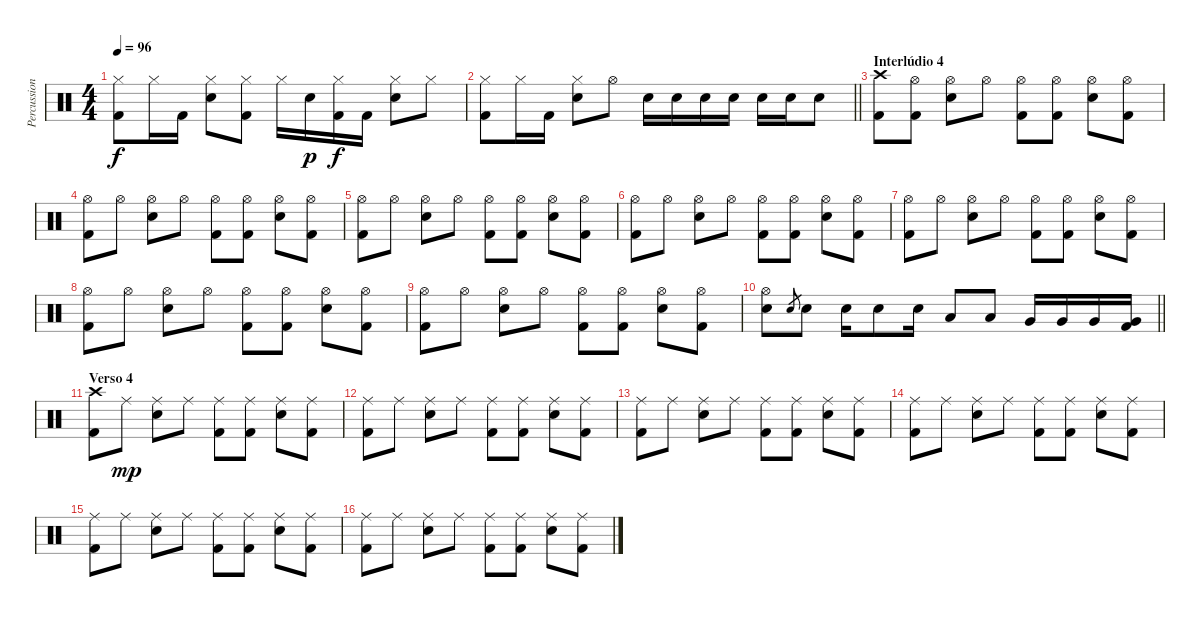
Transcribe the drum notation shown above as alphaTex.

\track ("Percussion" "Percussion") {instrument percussion}
\staff {score}
\articulation defaults
\ts (4 4)
\tempo 96
\clef neutral
\ks c
("Hi-Hat (closed)" "Kick (hit) 2").8{dy f} "Hi-Hat (closed)".16 "Kick (hit) 2".16 ("Hi-Hat (closed)" "Electric Snare (hit)").8 ("Hi-Hat (closed)" "Kick (hit) 2").8 "Hi-Hat (closed)".16 "Electric Snare (hit)".16{dy p} ("Hi-Hat (closed)" "Kick (hit) 2").16{dy f} "Kick (hit) 2".16 ("Hi-Hat (closed)" "Electric Snare (hit)").8 "Hi-Hat (closed)".8 |
\barLineRight lightlight
("Hi-Hat (closed)" "Kick (hit) 2").8 "Hi-Hat (closed)".16 "Kick (hit) 2".16 ("Hi-Hat (closed)" "Electric Snare (hit)").8 "Hi-Hat (open)".8 "Electric Snare (hit)".16 "Electric Snare (hit)".16 "Electric Snare (hit)".16 "Electric Snare (hit)".16 "Electric Snare (hit)".16 "Electric Snare (hit)".16 "Electric Snare (hit)".8 |
\section ("" "Interlúdio 4")
("Crash high (hit)" "Kick (hit) 2").8 ("Hi-Hat (open)" "Kick (hit) 2").8 ("Hi-Hat (open)" "Electric Snare (hit)").8 "Hi-Hat (open)".8 ("Hi-Hat (open)" "Kick (hit) 2").8 ("Hi-Hat (open)" "Kick (hit) 2").8 ("Hi-Hat (open)" "Electric Snare (hit)").8 ("Hi-Hat (open)" "Kick (hit) 2").8 |
("Hi-Hat (open)" "Kick (hit) 2").8 "Hi-Hat (open)".8 ("Hi-Hat (open)" "Electric Snare (hit)").8 "Hi-Hat (open)".8 ("Hi-Hat (open)" "Kick (hit) 2").8 ("Hi-Hat (open)" "Kick (hit) 2").8 ("Hi-Hat (open)" "Electric Snare (hit)").8 ("Hi-Hat (open)" "Kick (hit) 2").8 |
("Hi-Hat (open)" "Kick (hit) 2").8 "Hi-Hat (open)".8 ("Hi-Hat (open)" "Electric Snare (hit)").8 "Hi-Hat (open)".8 ("Hi-Hat (open)" "Kick (hit) 2").8 ("Hi-Hat (open)" "Kick (hit) 2").8 ("Hi-Hat (open)" "Electric Snare (hit)").8 ("Hi-Hat (open)" "Kick (hit) 2").8 |
("Hi-Hat (open)" "Kick (hit) 2").8 "Hi-Hat (open)".8 ("Hi-Hat (open)" "Electric Snare (hit)").8 "Hi-Hat (open)".8 ("Hi-Hat (open)" "Kick (hit) 2").8 ("Hi-Hat (open)" "Kick (hit) 2").8 ("Hi-Hat (open)" "Electric Snare (hit)").8 ("Hi-Hat (open)" "Kick (hit) 2").8 |
("Hi-Hat (open)" "Kick (hit) 2").8 "Hi-Hat (open)".8 ("Hi-Hat (open)" "Electric Snare (hit)").8 "Hi-Hat (open)".8 ("Hi-Hat (open)" "Kick (hit) 2").8 ("Hi-Hat (open)" "Kick (hit) 2").8 ("Hi-Hat (open)" "Electric Snare (hit)").8 ("Hi-Hat (open)" "Kick (hit) 2").8 |
("Hi-Hat (open)" "Kick (hit) 2").8 "Hi-Hat (open)".8 ("Hi-Hat (open)" "Electric Snare (hit)").8 "Hi-Hat (open)".8 ("Hi-Hat (open)" "Kick (hit) 2").8 ("Hi-Hat (open)" "Kick (hit) 2").8 ("Hi-Hat (open)" "Electric Snare (hit)").8 ("Hi-Hat (open)" "Kick (hit) 2").8 |
("Hi-Hat (open)" "Kick (hit) 2").8 "Hi-Hat (open)".8 ("Hi-Hat (open)" "Electric Snare (hit)").8 "Hi-Hat (open)".8 ("Hi-Hat (open)" "Kick (hit) 2").8 ("Hi-Hat (open)" "Kick (hit) 2").8 ("Hi-Hat (open)" "Electric Snare (hit)").8 ("Hi-Hat (open)" "Kick (hit) 2").8 |
\barLineRight lightlight
("Hi-Hat (open)" "Electric Snare (hit)").8 "Electric Snare (hit)".8{gr} "Electric Snare (hit)".8 "Electric Snare (hit)".16 "Electric Snare (hit)".8 "Electric Snare (hit)".16 "Low Tom (hit)".8 "Low Tom (hit)".8 "Very Low Tom (hit)".16 "Very Low Tom (hit)".16 "Very Low Tom (hit)".16 ("Very Low Tom (hit)" "Kick (hit) 2").16 |
\section ("" "Verso 4")
("Crash high (hit)" "Kick (hit) 2").8 "Ride (middle)".8{dy mp} ("Ride (middle)" "Electric Snare (hit)").8 "Ride (middle)".8 ("Ride (middle)" "Kick (hit) 2").8 ("Ride (middle)" "Kick (hit) 2").8 ("Ride (middle)" "Electric Snare (hit)").8 ("Ride (middle)" "Kick (hit) 2").8 |
("Ride (middle)" "Kick (hit) 2").8 "Ride (middle)".8 ("Ride (middle)" "Electric Snare (hit)").8 "Ride (middle)".8 ("Ride (middle)" "Kick (hit) 2").8 ("Ride (middle)" "Kick (hit) 2").8 ("Ride (middle)" "Electric Snare (hit)").8 ("Ride (middle)" "Kick (hit) 2").8 |
("Ride (middle)" "Kick (hit) 2").8 "Ride (middle)".8 ("Ride (middle)" "Electric Snare (hit)").8 "Ride (middle)".8 ("Ride (middle)" "Kick (hit) 2").8 ("Ride (middle)" "Kick (hit) 2").8 ("Ride (middle)" "Electric Snare (hit)").8 ("Ride (middle)" "Kick (hit) 2").8 |
("Ride (middle)" "Kick (hit) 2").8 "Ride (middle)".8 ("Ride (middle)" "Electric Snare (hit)").8 "Ride (middle)".8 ("Ride (middle)" "Kick (hit) 2").8 ("Ride (middle)" "Kick (hit) 2").8 ("Ride (middle)" "Electric Snare (hit)").8 ("Ride (middle)" "Kick (hit) 2").8 |
("Ride (middle)" "Kick (hit) 2").8 "Ride (middle)".8 ("Ride (middle)" "Electric Snare (hit)").8 "Ride (middle)".8 ("Ride (middle)" "Kick (hit) 2").8 ("Ride (middle)" "Kick (hit) 2").8 ("Ride (middle)" "Electric Snare (hit)").8 ("Ride (middle)" "Kick (hit) 2").8 |
("Ride (middle)" "Kick (hit) 2").8 "Ride (middle)".8 ("Ride (middle)" "Electric Snare (hit)").8 "Ride (middle)".8 ("Ride (middle)" "Kick (hit) 2").8 ("Ride (middle)" "Kick (hit) 2").8 ("Ride (middle)" "Electric Snare (hit)").8 ("Ride (middle)" "Kick (hit) 2").8
